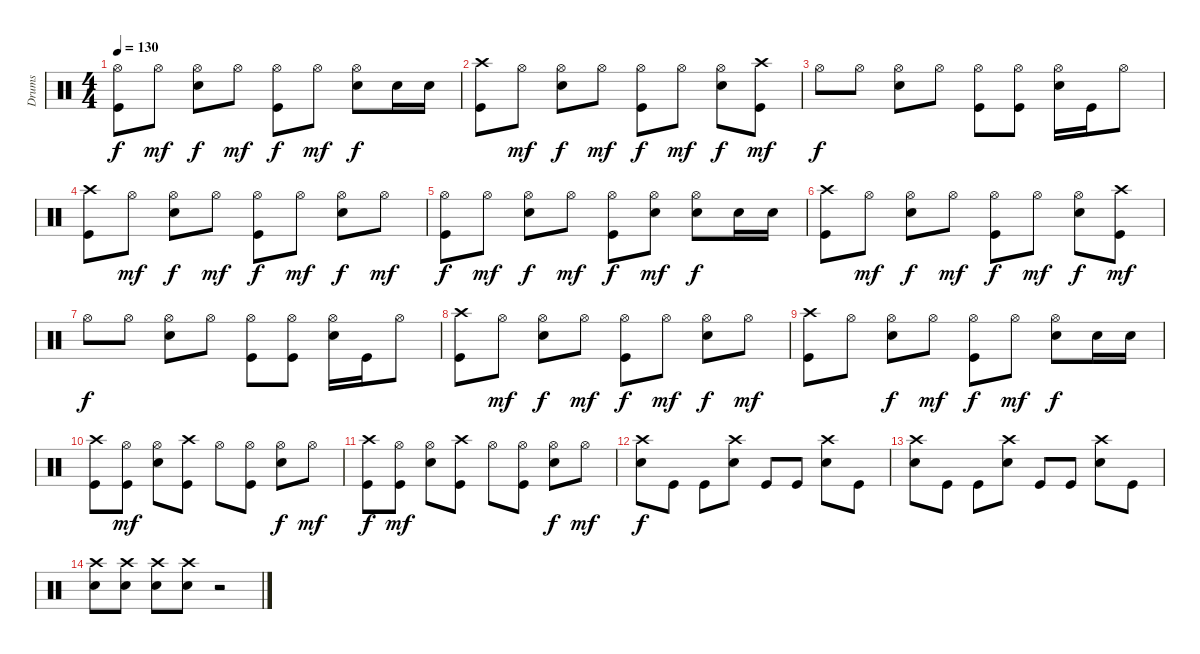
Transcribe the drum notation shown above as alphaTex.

\track ("Drums" "Drums") {instrument percussion}
\staff {score}
\articulation defaults
\ts (4 4)
\tempo 130
\clef neutral
\ks c
("Hi-Hat (open)" "Kick (hit)").8{dy f} "Hi-Hat (open)".8{dy mf} ("Hi-Hat (open)" "Snare (hit) 2").8{dy f} "Hi-Hat (open)".8{dy mf} ("Hi-Hat (open)" "Kick (hit)").8{dy f} "Hi-Hat (open)".8{dy mf} ("Hi-Hat (open)" "Snare (hit) 2").8{dy f} "Snare (hit) 2".16 "Snare (hit) 2".16 |
("Crash high (hit)" "Kick (hit)").8 "Hi-Hat (open)".8{dy mf} ("Hi-Hat (open)" "Snare (hit) 2").8{dy f} "Hi-Hat (open)".8{dy mf} ("Hi-Hat (open)" "Kick (hit)").8{dy f} "Hi-Hat (open)".8{dy mf} ("Hi-Hat (open)" "Snare (hit) 2").8{dy f} ("Crash high (hit)" "Kick (hit)").8{dy mf} |
"Hi-Hat (open)".8{dy f} "Hi-Hat (open)".8 ("Hi-Hat (open)" "Snare (hit) 2").8 "Hi-Hat (open)".8 ("Hi-Hat (open)" "Kick (hit)").8 ("Hi-Hat (open)" "Kick (hit)").8 ("Hi-Hat (open)" "Snare (hit) 2").16 "Kick (hit)".16 "Hi-Hat (open)".8 |
("Crash high (hit)" "Kick (hit)").8 "Hi-Hat (open)".8{dy mf} ("Hi-Hat (open)" "Snare (hit) 2").8{dy f} "Hi-Hat (open)".8{dy mf} ("Hi-Hat (open)" "Kick (hit)").8{dy f} "Hi-Hat (open)".8{dy mf} ("Hi-Hat (open)" "Snare (hit) 2").8{dy f} "Hi-Hat (open)".8{dy mf} |
("Hi-Hat (open)" "Kick (hit)").8{dy f} "Hi-Hat (open)".8{dy mf} ("Hi-Hat (open)" "Snare (hit) 2").8{dy f} "Hi-Hat (open)".8{dy mf} ("Hi-Hat (open)" "Kick (hit)").8{dy f} ("Hi-Hat (open)" "Snare (hit) 2").8{dy mf} ("Hi-Hat (open)" "Snare (hit) 2").8{dy f} "Snare (hit) 2".16 "Snare (hit) 2".16 |
("Crash high (hit)" "Kick (hit)").8 "Hi-Hat (open)".8{dy mf} ("Hi-Hat (open)" "Snare (hit) 2").8{dy f} "Hi-Hat (open)".8{dy mf} ("Hi-Hat (open)" "Kick (hit)").8{dy f} "Hi-Hat (open)".8{dy mf} ("Hi-Hat (open)" "Snare (hit) 2").8{dy f} ("Crash high (hit)" "Kick (hit)").8{dy mf} |
"Hi-Hat (open)".8{dy f} "Hi-Hat (open)".8 ("Hi-Hat (open)" "Snare (hit) 2").8 "Hi-Hat (open)".8 ("Hi-Hat (open)" "Kick (hit)").8 ("Hi-Hat (open)" "Kick (hit)").8 ("Hi-Hat (open)" "Snare (hit) 2").16 "Kick (hit)".16 "Hi-Hat (open)".8 |
("Crash high (hit)" "Kick (hit)").8 "Hi-Hat (open)".8{dy mf} ("Hi-Hat (open)" "Snare (hit) 2").8{dy f} "Hi-Hat (open)".8{dy mf} ("Hi-Hat (open)" "Kick (hit)").8{dy f} "Hi-Hat (open)".8{dy mf} ("Hi-Hat (open)" "Snare (hit) 2").8{dy f} "Hi-Hat (open)".8{dy mf} |
("Crash high (hit)" "Kick (hit)").8 "Hi-Hat (open)".8 ("Hi-Hat (open)" "Snare (hit) 2").8{dy f} "Hi-Hat (open)".8{dy mf} ("Hi-Hat (open)" "Kick (hit)").8{dy f} "Hi-Hat (open)".8{dy mf} ("Hi-Hat (open)" "Snare (hit) 2").8{dy f} "Snare (hit) 2".16 "Snare (hit) 2".16 |
("Crash high (hit)" "Kick (hit)").8 ("Hi-Hat (open)" "Kick (hit)").8{dy mf} ("Hi-Hat (open)" "Snare (hit) 2").8 ("Crash high (hit)" "Kick (hit)").8 "Hi-Hat (open)".8 ("Hi-Hat (open)" "Kick (hit)").8 ("Hi-Hat (open)" "Snare (hit) 2").8{dy f} "Hi-Hat (open)".8{dy mf} |
("Crash high (hit)" "Kick (hit)").8{dy f} ("Hi-Hat (open)" "Kick (hit)").8{dy mf} ("Hi-Hat (open)" "Snare (hit) 2").8 ("Crash high (hit)" "Kick (hit)").8 "Hi-Hat (open)".8 ("Hi-Hat (open)" "Kick (hit)").8 ("Hi-Hat (open)" "Snare (hit) 2").8{dy f} "Hi-Hat (open)".8{dy mf} |
("Crash high (hit)" "Snare (hit) 2").8{dy f} "Kick (hit)".8 "Kick (hit)".8 ("Crash high (hit)" "Snare (hit) 2").8 "Kick (hit)".8 "Kick (hit)".8 ("Crash high (hit)" "Snare (hit) 2").8 "Kick (hit)".8 |
("Crash high (hit)" "Snare (hit) 2").8 "Kick (hit)".8 "Kick (hit)".8 ("Crash high (hit)" "Snare (hit) 2").8 "Kick (hit)".8 "Kick (hit)".8 ("Crash high (hit)" "Snare (hit) 2").8 "Kick (hit)".8 |
("Crash high (hit)" "Snare (hit) 2").8 ("Crash high (hit)" "Snare (hit) 2").8 ("Crash high (hit)" "Snare (hit) 2").8 ("Crash high (hit)" "Snare (hit) 2").8 r.2
